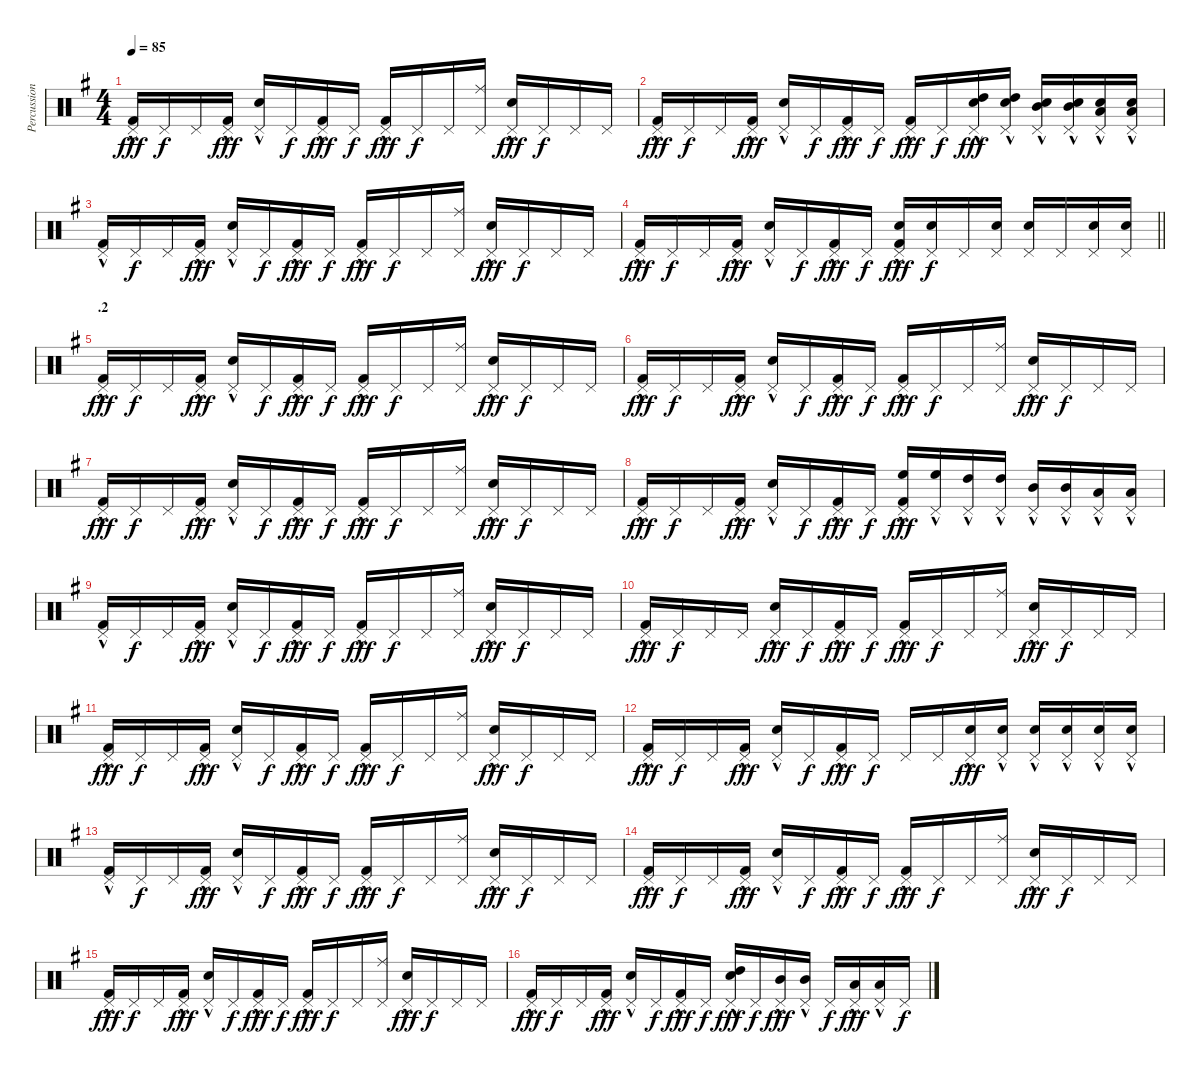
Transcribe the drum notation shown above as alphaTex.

\track ("Percussion" "Percussion") {instrument percussion}
\staff {score}
\articulation defaults
\ts (4 4)
\tempo 85
\clef neutral
\ks g
("Pedal Hi-Hat (hit)" "Kick (hit) 2"{hac}).16{dy fff} "Pedal Hi-Hat (hit)".16{dy f} "Pedal Hi-Hat (hit)".16 ("Pedal Hi-Hat (hit)" "Kick (hit) 2"{hac}).16{dy fff} ("Pedal Hi-Hat (hit)" "Snare (hit) 2"{hac}).16 "Pedal Hi-Hat (hit)".16{dy f} ("Pedal Hi-Hat (hit)" "Kick (hit) 2"{hac}).16{dy fff} "Pedal Hi-Hat (hit)".16{dy f} ("Pedal Hi-Hat (hit)" "Kick (hit) 2"{hac}).16{dy fff} "Pedal Hi-Hat (hit)".16{dy f} "Pedal Hi-Hat (hit)".16 ("Pedal Hi-Hat (hit)" "Ride (middle)").16 ("Pedal Hi-Hat (hit)" "Snare (hit) 2"{hac}).16{dy fff} "Pedal Hi-Hat (hit)".16{dy f} "Pedal Hi-Hat (hit)".16 "Pedal Hi-Hat (hit)".16 |
("Pedal Hi-Hat (hit)" "Kick (hit) 2"{hac}).16{dy fff} "Pedal Hi-Hat (hit)".16{dy f} "Pedal Hi-Hat (hit)".16 ("Pedal Hi-Hat (hit)" "Kick (hit) 2"{hac}).16{dy fff} ("Pedal Hi-Hat (hit)" "Snare (hit) 2"{hac}).16 "Pedal Hi-Hat (hit)".16{dy f} ("Pedal Hi-Hat (hit)" "Kick (hit) 2"{hac}).16{dy fff} "Pedal Hi-Hat (hit)".16{dy f} ("Pedal Hi-Hat (hit)" "Kick (hit) 2"{hac}).16{dy fff} "Pedal Hi-Hat (hit)".16{dy f} ("Pedal Hi-Hat (hit)" "High Tom (hit)" "Electric Snare (hit)"{hac}).16{dy fff} ("Pedal Hi-Hat (hit)" "High Tom (hit)" "Electric Snare (hit)"{hac}).16 ("Pedal Hi-Hat (hit)" "Mid Tom (hit)" "Electric Snare (hit)"{hac}).16 ("Pedal Hi-Hat (hit)" "Mid Tom (hit)" "Electric Snare (hit)"{hac}).16 ("Pedal Hi-Hat (hit)" "Low Tom (hit)" "Electric Snare (hit)"{hac}).16 ("Pedal Hi-Hat (hit)" "Low Tom (hit)" "Electric Snare (hit)"{hac}).16 |
("Pedal Hi-Hat (hit)" "Kick (hit) 2"{hac}).16 "Pedal Hi-Hat (hit)".16{dy f} "Pedal Hi-Hat (hit)".16 ("Pedal Hi-Hat (hit)" "Kick (hit) 2"{hac}).16{dy fff} ("Pedal Hi-Hat (hit)" "Snare (hit) 2"{hac}).16 "Pedal Hi-Hat (hit)".16{dy f} ("Pedal Hi-Hat (hit)" "Kick (hit) 2"{hac}).16{dy fff} "Pedal Hi-Hat (hit)".16{dy f} ("Pedal Hi-Hat (hit)" "Kick (hit) 2"{hac}).16{dy fff} "Pedal Hi-Hat (hit)".16{dy f} "Pedal Hi-Hat (hit)".16 ("Pedal Hi-Hat (hit)" "Ride (middle)").16 ("Pedal Hi-Hat (hit)" "Snare (hit) 2"{hac}).16{dy fff} "Pedal Hi-Hat (hit)".16{dy f} "Pedal Hi-Hat (hit)".16 "Pedal Hi-Hat (hit)".16 |
\barLineRight lightlight
("Pedal Hi-Hat (hit)" "Kick (hit) 2"{hac}).16{dy fff} "Pedal Hi-Hat (hit)".16{dy f} "Pedal Hi-Hat (hit)".16 ("Pedal Hi-Hat (hit)" "Kick (hit) 2"{hac}).16{dy fff} ("Pedal Hi-Hat (hit)" "Snare (hit) 2"{hac}).16 "Pedal Hi-Hat (hit)".16{dy f} ("Pedal Hi-Hat (hit)" "Kick (hit) 2"{hac}).16{dy fff} "Pedal Hi-Hat (hit)".16{dy f} ("Pedal Hi-Hat (hit)" "Snare (hit) 2" "Kick (hit) 2"{hac}).16{dy fff} ("Pedal Hi-Hat (hit)" "Snare (hit) 2").16{dy f} "Pedal Hi-Hat (hit)".16 ("Pedal Hi-Hat (hit)" "Snare (hit) 2").16 ("Pedal Hi-Hat (hit)" "Snare (hit) 2").16 "Pedal Hi-Hat (hit)".16 ("Pedal Hi-Hat (hit)" "Snare (hit) 2").16 ("Pedal Hi-Hat (hit)" "Snare (hit) 2").16 |
\section ("" ".2")
("Pedal Hi-Hat (hit)" "Kick (hit) 2"{hac}).16{dy fff} "Pedal Hi-Hat (hit)".16{dy f} "Pedal Hi-Hat (hit)".16 ("Pedal Hi-Hat (hit)" "Kick (hit) 2"{hac}).16{dy fff} ("Pedal Hi-Hat (hit)" "Snare (hit) 2"{hac}).16 "Pedal Hi-Hat (hit)".16{dy f} ("Pedal Hi-Hat (hit)" "Kick (hit) 2"{hac}).16{dy fff} "Pedal Hi-Hat (hit)".16{dy f} ("Pedal Hi-Hat (hit)" "Kick (hit) 2"{hac}).16{dy fff} "Pedal Hi-Hat (hit)".16{dy f} "Pedal Hi-Hat (hit)".16 ("Pedal Hi-Hat (hit)" "Ride (middle)").16 ("Pedal Hi-Hat (hit)" "Snare (hit) 2"{hac}).16{dy fff} "Pedal Hi-Hat (hit)".16{dy f} "Pedal Hi-Hat (hit)".16 "Pedal Hi-Hat (hit)".16 |
("Pedal Hi-Hat (hit)" "Kick (hit) 2"{hac}).16{dy fff} "Pedal Hi-Hat (hit)".16{dy f} "Pedal Hi-Hat (hit)".16 ("Pedal Hi-Hat (hit)" "Kick (hit) 2"{hac}).16{dy fff} ("Pedal Hi-Hat (hit)" "Snare (hit) 2"{hac}).16 "Pedal Hi-Hat (hit)".16{dy f} ("Pedal Hi-Hat (hit)" "Kick (hit) 2"{hac}).16{dy fff} "Pedal Hi-Hat (hit)".16{dy f} ("Pedal Hi-Hat (hit)" "Kick (hit) 2"{hac}).16{dy fff} "Pedal Hi-Hat (hit)".16{dy f} "Pedal Hi-Hat (hit)".16 ("Pedal Hi-Hat (hit)" "Ride (middle)").16 ("Pedal Hi-Hat (hit)" "Snare (hit) 2"{hac}).16{dy fff} "Pedal Hi-Hat (hit)".16{dy f} "Pedal Hi-Hat (hit)".16 "Pedal Hi-Hat (hit)".16 |
("Pedal Hi-Hat (hit)" "Kick (hit) 2"{hac}).16{dy fff} "Pedal Hi-Hat (hit)".16{dy f} "Pedal Hi-Hat (hit)".16 ("Pedal Hi-Hat (hit)" "Kick (hit) 2"{hac}).16{dy fff} ("Pedal Hi-Hat (hit)" "Snare (hit) 2"{hac}).16 "Pedal Hi-Hat (hit)".16{dy f} ("Pedal Hi-Hat (hit)" "Kick (hit) 2"{hac}).16{dy fff} "Pedal Hi-Hat (hit)".16{dy f} ("Pedal Hi-Hat (hit)" "Kick (hit) 2"{hac}).16{dy fff} "Pedal Hi-Hat (hit)".16{dy f} "Pedal Hi-Hat (hit)".16 ("Pedal Hi-Hat (hit)" "Ride (middle)").16 ("Pedal Hi-Hat (hit)" "Snare (hit) 2"{hac}).16{dy fff} "Pedal Hi-Hat (hit)".16{dy f} "Pedal Hi-Hat (hit)".16 "Pedal Hi-Hat (hit)".16 |
("Pedal Hi-Hat (hit)" "Kick (hit) 2"{hac}).16{dy fff} "Pedal Hi-Hat (hit)".16{dy f} "Pedal Hi-Hat (hit)".16 ("Pedal Hi-Hat (hit)" "Kick (hit) 2"{hac}).16{dy fff} ("Pedal Hi-Hat (hit)" "Snare (hit) 2"{hac}).16 "Pedal Hi-Hat (hit)".16{dy f} ("Pedal Hi-Hat (hit)" "Kick (hit) 2"{hac}).16{dy fff} "Pedal Hi-Hat (hit)".16{dy f} ("Pedal Hi-Hat (hit)" "High Floor Tom (hit)"{hac} "Kick (hit) 2"{hac}).16{dy fff} ("Pedal Hi-Hat (hit)" "High Floor Tom (hit)"{hac}).16 ("Pedal Hi-Hat (hit)" "High Tom (hit)"{hac}).16 ("Pedal Hi-Hat (hit)" "High Tom (hit)"{hac}).16 ("Pedal Hi-Hat (hit)" "Mid Tom (hit)"{hac}).16 ("Pedal Hi-Hat (hit)" "Mid Tom (hit)"{hac}).16 ("Pedal Hi-Hat (hit)" "Low Tom (hit)"{hac}).16 ("Pedal Hi-Hat (hit)" "Low Tom (hit)"{hac}).16 |
("Pedal Hi-Hat (hit)" "Kick (hit) 2"{hac}).16 "Pedal Hi-Hat (hit)".16{dy f} "Pedal Hi-Hat (hit)".16 ("Pedal Hi-Hat (hit)" "Kick (hit) 2"{hac}).16{dy fff} ("Pedal Hi-Hat (hit)" "Snare (hit) 2"{hac}).16 "Pedal Hi-Hat (hit)".16{dy f} ("Pedal Hi-Hat (hit)" "Kick (hit) 2"{hac}).16{dy fff} "Pedal Hi-Hat (hit)".16{dy f} ("Pedal Hi-Hat (hit)" "Kick (hit) 2"{hac}).16{dy fff} "Pedal Hi-Hat (hit)".16{dy f} "Pedal Hi-Hat (hit)".16 ("Pedal Hi-Hat (hit)" "Ride (middle)").16 ("Pedal Hi-Hat (hit)" "Snare (hit) 2"{hac}).16{dy fff} "Pedal Hi-Hat (hit)".16{dy f} "Pedal Hi-Hat (hit)".16 "Pedal Hi-Hat (hit)".16 |
("Pedal Hi-Hat (hit)" "Kick (hit) 2"{hac}).16{dy fff} "Pedal Hi-Hat (hit)".16{dy f} "Pedal Hi-Hat (hit)".16 "Pedal Hi-Hat (hit)".16 ("Pedal Hi-Hat (hit)" "Snare (hit) 2"{hac}).16{dy fff} "Pedal Hi-Hat (hit)".16{dy f} ("Pedal Hi-Hat (hit)" "Kick (hit) 2"{hac}).16{dy fff} "Pedal Hi-Hat (hit)".16{dy f} ("Pedal Hi-Hat (hit)" "Kick (hit) 2"{hac}).16{dy fff} "Pedal Hi-Hat (hit)".16{dy f} "Pedal Hi-Hat (hit)".16 ("Pedal Hi-Hat (hit)" "Ride (middle)").16 ("Pedal Hi-Hat (hit)" "Snare (hit) 2"{hac}).16{dy fff} "Pedal Hi-Hat (hit)".16{dy f} "Pedal Hi-Hat (hit)".16 "Pedal Hi-Hat (hit)".16 |
("Pedal Hi-Hat (hit)" "Kick (hit) 2"{hac}).16{dy fff} "Pedal Hi-Hat (hit)".16{dy f} "Pedal Hi-Hat (hit)".16 ("Pedal Hi-Hat (hit)" "Kick (hit) 2"{hac}).16{dy fff} ("Pedal Hi-Hat (hit)" "Snare (hit) 2"{hac}).16 "Pedal Hi-Hat (hit)".16{dy f} ("Pedal Hi-Hat (hit)" "Kick (hit) 2"{hac}).16{dy fff} "Pedal Hi-Hat (hit)".16{dy f} ("Pedal Hi-Hat (hit)" "Kick (hit) 2"{hac}).16{dy fff} "Pedal Hi-Hat (hit)".16{dy f} "Pedal Hi-Hat (hit)".16 ("Pedal Hi-Hat (hit)" "Ride (middle)").16 ("Pedal Hi-Hat (hit)" "Snare (hit) 2"{hac}).16{dy fff} "Pedal Hi-Hat (hit)".16{dy f} "Pedal Hi-Hat (hit)".16 "Pedal Hi-Hat (hit)".16 |
("Pedal Hi-Hat (hit)" "Kick (hit) 2"{hac}).16{dy fff} "Pedal Hi-Hat (hit)".16{dy f} "Pedal Hi-Hat (hit)".16 ("Pedal Hi-Hat (hit)" "Kick (hit) 2"{hac}).16{dy fff} ("Pedal Hi-Hat (hit)" "Snare (hit) 2"{hac}).16 "Pedal Hi-Hat (hit)".16{dy f} ("Pedal Hi-Hat (hit)" "Kick (hit) 2"{hac}).16{dy fff} "Pedal Hi-Hat (hit)".16{dy f} "Pedal Hi-Hat (hit)".16 "Pedal Hi-Hat (hit)".16 ("Pedal Hi-Hat (hit)" "Snare (hit) 2"{hac}).16{dy fff} ("Pedal Hi-Hat (hit)" "Snare (hit) 2"{hac}).16 ("Pedal Hi-Hat (hit)" "Snare (hit) 2"{hac}).16 ("Pedal Hi-Hat (hit)" "Snare (hit) 2"{hac}).16 ("Pedal Hi-Hat (hit)" "Snare (hit) 2"{hac}).16 ("Pedal Hi-Hat (hit)" "Snare (hit) 2"{hac}).16 |
("Pedal Hi-Hat (hit)" "Kick (hit) 2"{hac}).16 "Pedal Hi-Hat (hit)".16{dy f} "Pedal Hi-Hat (hit)".16 ("Pedal Hi-Hat (hit)" "Kick (hit) 2"{hac}).16{dy fff} ("Pedal Hi-Hat (hit)" "Snare (hit) 2"{hac}).16 "Pedal Hi-Hat (hit)".16{dy f} ("Pedal Hi-Hat (hit)" "Kick (hit) 2"{hac}).16{dy fff} "Pedal Hi-Hat (hit)".16{dy f} ("Pedal Hi-Hat (hit)" "Kick (hit) 2"{hac}).16{dy fff} "Pedal Hi-Hat (hit)".16{dy f} "Pedal Hi-Hat (hit)".16 ("Pedal Hi-Hat (hit)" "Ride (middle)").16 ("Pedal Hi-Hat (hit)" "Snare (hit) 2"{hac}).16{dy fff} "Pedal Hi-Hat (hit)".16{dy f} "Pedal Hi-Hat (hit)".16 "Pedal Hi-Hat (hit)".16 |
("Pedal Hi-Hat (hit)" "Kick (hit) 2"{hac}).16{dy fff} "Pedal Hi-Hat (hit)".16{dy f} "Pedal Hi-Hat (hit)".16 ("Pedal Hi-Hat (hit)" "Kick (hit) 2"{hac}).16{dy fff} ("Pedal Hi-Hat (hit)" "Snare (hit) 2"{hac}).16 "Pedal Hi-Hat (hit)".16{dy f} ("Pedal Hi-Hat (hit)" "Kick (hit) 2"{hac}).16{dy fff} "Pedal Hi-Hat (hit)".16{dy f} ("Pedal Hi-Hat (hit)" "Kick (hit) 2"{hac}).16{dy fff} "Pedal Hi-Hat (hit)".16{dy f} "Pedal Hi-Hat (hit)".16 ("Pedal Hi-Hat (hit)" "Ride (middle)").16 ("Pedal Hi-Hat (hit)" "Snare (hit) 2"{hac}).16{dy fff} "Pedal Hi-Hat (hit)".16{dy f} "Pedal Hi-Hat (hit)".16 "Pedal Hi-Hat (hit)".16 |
("Pedal Hi-Hat (hit)" "Kick (hit) 2"{hac}).16{dy fff} "Pedal Hi-Hat (hit)".16{dy f} "Pedal Hi-Hat (hit)".16 ("Pedal Hi-Hat (hit)" "Kick (hit) 2"{hac}).16{dy fff} ("Pedal Hi-Hat (hit)" "Snare (hit) 2"{hac}).16 "Pedal Hi-Hat (hit)".16{dy f} ("Pedal Hi-Hat (hit)" "Kick (hit) 2"{hac}).16{dy fff} "Pedal Hi-Hat (hit)".16{dy f} ("Pedal Hi-Hat (hit)" "Kick (hit) 2"{hac}).16{dy fff} "Pedal Hi-Hat (hit)".16{dy f} "Pedal Hi-Hat (hit)".16 ("Pedal Hi-Hat (hit)" "Ride (middle)").16 ("Pedal Hi-Hat (hit)" "Snare (hit) 2"{hac}).16{dy fff} "Pedal Hi-Hat (hit)".16{dy f} "Pedal Hi-Hat (hit)".16 "Pedal Hi-Hat (hit)".16 |
("Pedal Hi-Hat (hit)" "Kick (hit) 2"{hac}).16{dy fff} "Pedal Hi-Hat (hit)".16{dy f} "Pedal Hi-Hat (hit)".16 ("Pedal Hi-Hat (hit)" "Kick (hit) 2"{hac}).16{dy fff} ("Pedal Hi-Hat (hit)" "Snare (hit) 2"{hac}).16 "Pedal Hi-Hat (hit)".16{dy f} ("Pedal Hi-Hat (hit)" "Kick (hit) 2"{hac}).16{dy fff} "Pedal Hi-Hat (hit)".16{dy f} ("Pedal Hi-Hat (hit)" "High Tom (hit)"{hac} "Electric Snare (hit)").16{dy fff} "Pedal Hi-Hat (hit)".16{dy f} ("Pedal Hi-Hat (hit)" "Mid Tom (hit)"{hac}).16{dy fff} ("Pedal Hi-Hat (hit)" "Mid Tom (hit)"{hac}).16 "Pedal Hi-Hat (hit)".16{dy f} ("Pedal Hi-Hat (hit)" "Low Tom (hit)"{hac}).16{dy fff} ("Pedal Hi-Hat (hit)" "Low Tom (hit)"{hac}).16 "Pedal Hi-Hat (hit)".16{dy f}
